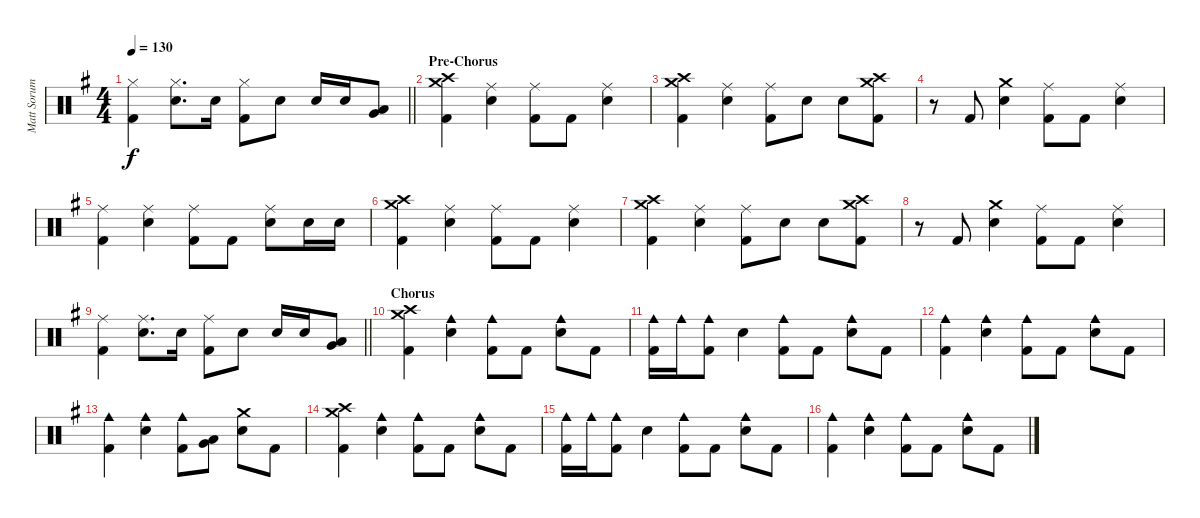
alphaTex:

\track ("Matt Sorum - Drums" "Matt Sorum") {instrument percussion}
\staff {score}
\articulation defaults
\ts (4 4)
\tempo 130
\clef neutral
\barLineRight lightlight
\ks g
("Hi-Hat (closed)" "Kick (hit) 2").4{dy f} ("Hi-Hat (closed)" "Snare (hit) 2").8{d} "Snare (hit) 2".16 ("Hi-Hat (closed)" "Kick (hit) 2").8 "Snare (hit) 2".8 "Snare (hit) 2".16 "Snare (hit) 2".16 ("Low Tom (hit)" "Very Low Tom (hit)").8 |
\section ("" "Pre-Chorus")
("Crash medium (hit)" "Crash high (hit)" "Kick (hit) 2").4 ("Ride (middle)" "Snare (hit) 2").4 ("Ride (middle)" "Kick (hit) 2").8 "Kick (hit) 2".8 ("Ride (middle)" "Snare (hit) 2").4 |
("Crash medium (hit)" "Crash high (hit)" "Kick (hit) 2").4 ("Ride (middle)" "Snare (hit) 2").4 ("Ride (middle)" "Kick (hit) 2").8 "Snare (hit) 2".8 "Snare (hit) 2".8 ("Crash medium (hit)" "Crash high (hit)" "Kick (hit) 2").8 |
r.8 "Kick (hit) 2".8 ("Crash medium (hit)" "Snare (hit) 2").4 ("Ride (middle)" "Kick (hit) 2").8 "Kick (hit) 2".8 ("Ride (middle)" "Snare (hit) 2").4 |
("Ride (middle)" "Kick (hit) 2").4 ("Ride (middle)" "Snare (hit) 2").4 ("Ride (middle)" "Kick (hit) 2").8 "Kick (hit) 2".8 ("Ride (middle)" "Snare (hit) 2").8 "Snare (hit) 2".16 "Snare (hit) 2".16 |
("Crash medium (hit)" "Crash high (hit)" "Kick (hit) 2").4 ("Ride (middle)" "Snare (hit) 2").4 ("Ride (middle)" "Kick (hit) 2").8 "Kick (hit) 2".8 ("Ride (middle)" "Snare (hit) 2").4 |
("Crash medium (hit)" "Crash high (hit)" "Kick (hit) 2").4 ("Ride (middle)" "Snare (hit) 2").4 ("Ride (middle)" "Kick (hit) 2").8 "Snare (hit) 2".8 "Snare (hit) 2".8 ("Crash medium (hit)" "Crash high (hit)" "Kick (hit) 2").8 |
r.8 "Kick (hit) 2".8 ("Crash medium (hit)" "Snare (hit) 2").4 ("Ride (middle)" "Kick (hit) 2").8 "Kick (hit) 2".8 ("Ride (middle)" "Snare (hit) 2").4 |
\barLineRight lightlight
("Ride (middle)" "Kick (hit) 2").4 ("Ride (middle)" "Snare (hit) 2").8{d} "Snare (hit) 2".16 ("Ride (middle)" "Kick (hit) 2").8 "Snare (hit) 2".8 "Snare (hit) 2".16 "Snare (hit) 2".16 ("Low Tom (hit)" "Very Low Tom (hit)").8 |
\section ("" "Chorus")
("Crash medium (hit)" "Crash high (hit)" "Kick (hit) 2").4 ("Cowbell medium (hit)" "Snare (hit) 2").4 ("Cowbell medium (hit)" "Kick (hit) 2").8 "Kick (hit) 2".8 ("Cowbell medium (hit)" "Snare (hit) 2").8 "Kick (hit) 2".8 |
("Cowbell medium (hit)" "Kick (hit) 2").16 "Cowbell medium (hit)".16 ("Cowbell medium (hit)" "Kick (hit) 2").8 "Snare (hit) 2".4 ("Cowbell medium (hit)" "Kick (hit) 2").8 "Kick (hit) 2".8 ("Cowbell medium (hit)" "Snare (hit) 2").8 "Kick (hit) 2".8 |
("Cowbell medium (hit)" "Kick (hit) 2").4 ("Cowbell medium (hit)" "Snare (hit) 2").4 ("Cowbell medium (hit)" "Kick (hit) 2").8 "Kick (hit) 2".8 ("Cowbell medium (hit)" "Snare (hit) 2").8 "Kick (hit) 2".8 |
("Cowbell medium (hit)" "Kick (hit) 2").4 ("Cowbell medium (hit)" "Snare (hit) 2").4 ("Cowbell medium (hit)" "Kick (hit) 2").8 ("Low Tom (hit)" "Very Low Tom (hit)").8 ("Crash medium (hit)" "Snare (hit) 2").8 "Kick (hit) 2".8 |
("Crash medium (hit)" "Crash high (hit)" "Kick (hit) 2").4 ("Cowbell medium (hit)" "Snare (hit) 2").4 ("Cowbell medium (hit)" "Kick (hit) 2").8 "Kick (hit) 2".8 ("Cowbell medium (hit)" "Snare (hit) 2").8 "Kick (hit) 2".8 |
("Cowbell medium (hit)" "Kick (hit) 2").16 "Cowbell medium (hit)".16 ("Cowbell medium (hit)" "Kick (hit) 2").8 "Snare (hit) 2".4 ("Cowbell medium (hit)" "Kick (hit) 2").8 "Kick (hit) 2".8 ("Cowbell medium (hit)" "Snare (hit) 2").8 "Kick (hit) 2".8 |
("Cowbell medium (hit)" "Kick (hit) 2").4 ("Cowbell medium (hit)" "Snare (hit) 2").4 ("Cowbell medium (hit)" "Kick (hit) 2").8 "Kick (hit) 2".8 ("Cowbell medium (hit)" "Snare (hit) 2").8 "Kick (hit) 2".8
